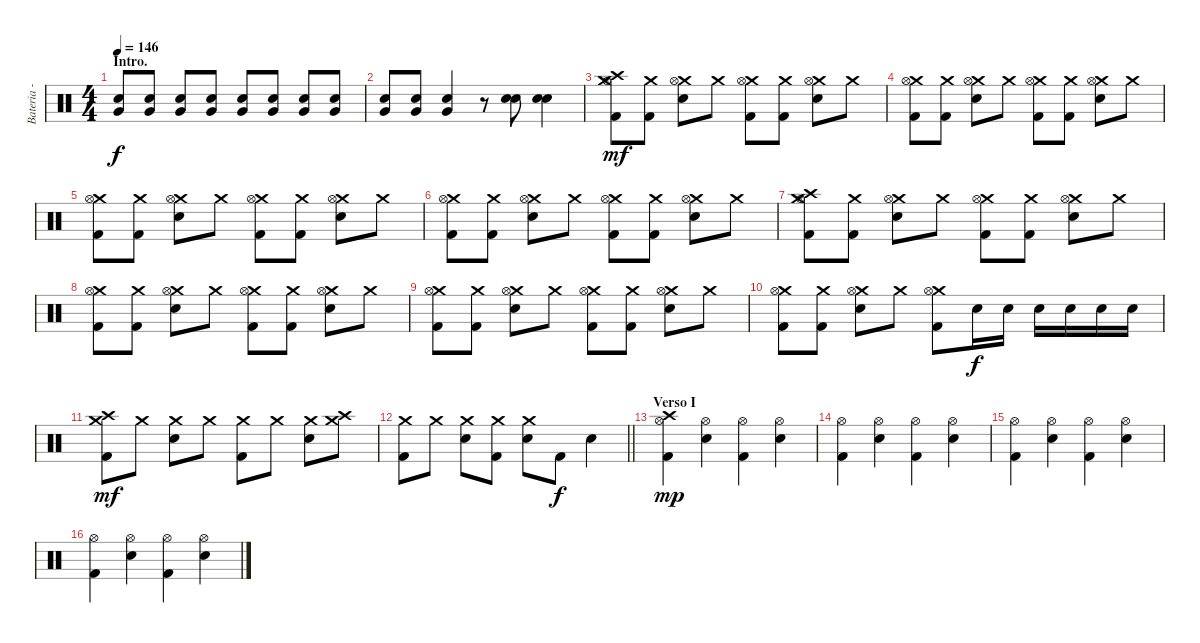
\track ("Bateria - Larzon" "Bateria - ") {instrument percussion}
\staff {score}
\articulation defaults
\ts (4 4)
\section ("" "Intro.")
\tempo 146
\clef neutral
\ks c
("Electric Snare (hit)" "Very Low Tom (hit)").8{dy f} ("Electric Snare (hit)" "Very Low Tom (hit)").8 ("Electric Snare (hit)" "Very Low Tom (hit)").8 ("Electric Snare (hit)" "Very Low Tom (hit)").8 ("Electric Snare (hit)" "Very Low Tom (hit)").8 ("Electric Snare (hit)" "Very Low Tom (hit)").8 ("Electric Snare (hit)" "Very Low Tom (hit)").8 ("Electric Snare (hit)" "Very Low Tom (hit)").8 |
("Electric Snare (hit)" "Very Low Tom (hit)").8 ("Electric Snare (hit)" "Very Low Tom (hit)").8 ("Electric Snare (hit)" "Very Low Tom (hit)").4 r.8 ("Electric Snare (hit)" "Electric Snare (hit)").8 ("Electric Snare (hit)" "Electric Snare (hit)").4 |
("Kick (hit) 2" "Crash medium (hit)" "Crash high (hit)" "Hi-Hat (open)").8{dy mf} ("Kick (hit) 2" "Crash medium (hit)").8 ("Electric Snare (hit)" "Crash medium (hit)" "Hi-Hat (open)").8 "Crash medium (hit)".8 ("Kick (hit) 2" "Crash medium (hit)" "Hi-Hat (open)").8 ("Kick (hit) 2" "Crash medium (hit)").8 ("Electric Snare (hit)" "Crash medium (hit)" "Hi-Hat (open)").8 "Crash medium (hit)".8 |
("Kick (hit) 2" "Crash medium (hit)" "Hi-Hat (open)").8 ("Kick (hit) 2" "Crash medium (hit)").8 ("Electric Snare (hit)" "Crash medium (hit)" "Hi-Hat (open)").8 "Crash medium (hit)".8 ("Kick (hit) 2" "Crash medium (hit)" "Hi-Hat (open)").8 ("Kick (hit) 2" "Crash medium (hit)").8 ("Electric Snare (hit)" "Crash medium (hit)" "Hi-Hat (open)").8 "Crash medium (hit)".8 |
("Kick (hit) 2" "Crash medium (hit)" "Hi-Hat (open)").8 ("Kick (hit) 2" "Crash medium (hit)").8 ("Electric Snare (hit)" "Crash medium (hit)" "Hi-Hat (open)").8 "Crash medium (hit)".8 ("Kick (hit) 2" "Crash medium (hit)" "Hi-Hat (open)").8 ("Kick (hit) 2" "Crash medium (hit)").8 ("Electric Snare (hit)" "Crash medium (hit)" "Hi-Hat (open)").8 "Crash medium (hit)".8 |
("Kick (hit) 2" "Crash medium (hit)" "Hi-Hat (open)").8 ("Kick (hit) 2" "Crash medium (hit)").8 ("Electric Snare (hit)" "Crash medium (hit)" "Hi-Hat (open)").8 "Crash medium (hit)".8 ("Kick (hit) 2" "Crash medium (hit)" "Hi-Hat (open)").8 ("Kick (hit) 2" "Crash medium (hit)").8 ("Electric Snare (hit)" "Crash medium (hit)" "Hi-Hat (open)").8 "Crash medium (hit)".8 |
("Kick (hit) 2" "Crash medium (hit)" "Crash high (hit)" "Hi-Hat (open)").8 ("Kick (hit) 2" "Crash medium (hit)").8 ("Electric Snare (hit)" "Crash medium (hit)" "Hi-Hat (open)").8 "Crash medium (hit)".8 ("Kick (hit) 2" "Crash medium (hit)" "Hi-Hat (open)").8 ("Kick (hit) 2" "Crash medium (hit)").8 ("Electric Snare (hit)" "Crash medium (hit)" "Hi-Hat (open)").8 "Crash medium (hit)".8 |
("Kick (hit) 2" "Crash medium (hit)" "Hi-Hat (open)").8 ("Kick (hit) 2" "Crash medium (hit)").8 ("Electric Snare (hit)" "Crash medium (hit)" "Hi-Hat (open)").8 "Crash medium (hit)".8 ("Kick (hit) 2" "Crash medium (hit)" "Hi-Hat (open)").8 ("Kick (hit) 2" "Crash medium (hit)").8 ("Electric Snare (hit)" "Crash medium (hit)" "Hi-Hat (open)").8 "Crash medium (hit)".8 |
("Kick (hit) 2" "Crash medium (hit)" "Hi-Hat (open)").8 ("Kick (hit) 2" "Crash medium (hit)").8 ("Electric Snare (hit)" "Crash medium (hit)" "Hi-Hat (open)").8 "Crash medium (hit)".8 ("Kick (hit) 2" "Crash medium (hit)" "Hi-Hat (open)").8 ("Kick (hit) 2" "Crash medium (hit)").8 ("Electric Snare (hit)" "Crash medium (hit)" "Hi-Hat (open)").8 "Crash medium (hit)".8 |
("Kick (hit) 2" "Crash medium (hit)" "Hi-Hat (open)").8 ("Kick (hit) 2" "Crash medium (hit)").8 ("Electric Snare (hit)" "Crash medium (hit)" "Hi-Hat (open)").8 "Crash medium (hit)".8 ("Kick (hit) 2" "Crash medium (hit)" "Hi-Hat (open)").8 "Electric Snare (hit)".16{dy f} "Electric Snare (hit)".16 "Electric Snare (hit)".16 "Electric Snare (hit)".16 "Electric Snare (hit)".16 "Electric Snare (hit)".16 |
("Kick (hit) 2" "Crash medium (hit)" "Crash high (hit)").8{dy mf} "Crash medium (hit)".8 ("Electric Snare (hit)" "Crash medium (hit)").8 "Crash medium (hit)".8 ("Kick (hit) 2" "Crash medium (hit)").8 "Crash medium (hit)".8 ("Electric Snare (hit)" "Crash medium (hit)").8 ("Crash medium (hit)" "Crash high (hit)").8 |
\barLineRight lightlight
("Kick (hit) 2" "Crash medium (hit)").8 "Crash medium (hit)".8 ("Electric Snare (hit)" "Crash medium (hit)").8 ("Kick (hit) 2" "Crash medium (hit)").8 ("Electric Snare (hit)" "Crash medium (hit)").8 "Kick (hit) 2".8{dy f} "Electric Snare (hit)".4 |
\section ("" "Verso I")
("Kick (hit) 2" "Hi-Hat (open)" "Crash high (hit)").4{dy mp} ("Electric Snare (hit)" "Hi-Hat (open)").4 ("Kick (hit) 2" "Hi-Hat (open)").4 ("Electric Snare (hit)" "Hi-Hat (open)").4 |
("Kick (hit) 2" "Hi-Hat (open)").4 ("Electric Snare (hit)" "Hi-Hat (open)").4 ("Kick (hit) 2" "Hi-Hat (open)").4 ("Electric Snare (hit)" "Hi-Hat (open)").4 |
("Kick (hit) 2" "Hi-Hat (open)").4 ("Electric Snare (hit)" "Hi-Hat (open)").4 ("Kick (hit) 2" "Hi-Hat (open)").4 ("Electric Snare (hit)" "Hi-Hat (open)").4 |
("Kick (hit) 2" "Hi-Hat (open)").4 ("Electric Snare (hit)" "Hi-Hat (open)").4 ("Kick (hit) 2" "Hi-Hat (open)").4 ("Electric Snare (hit)" "Hi-Hat (open)").4
